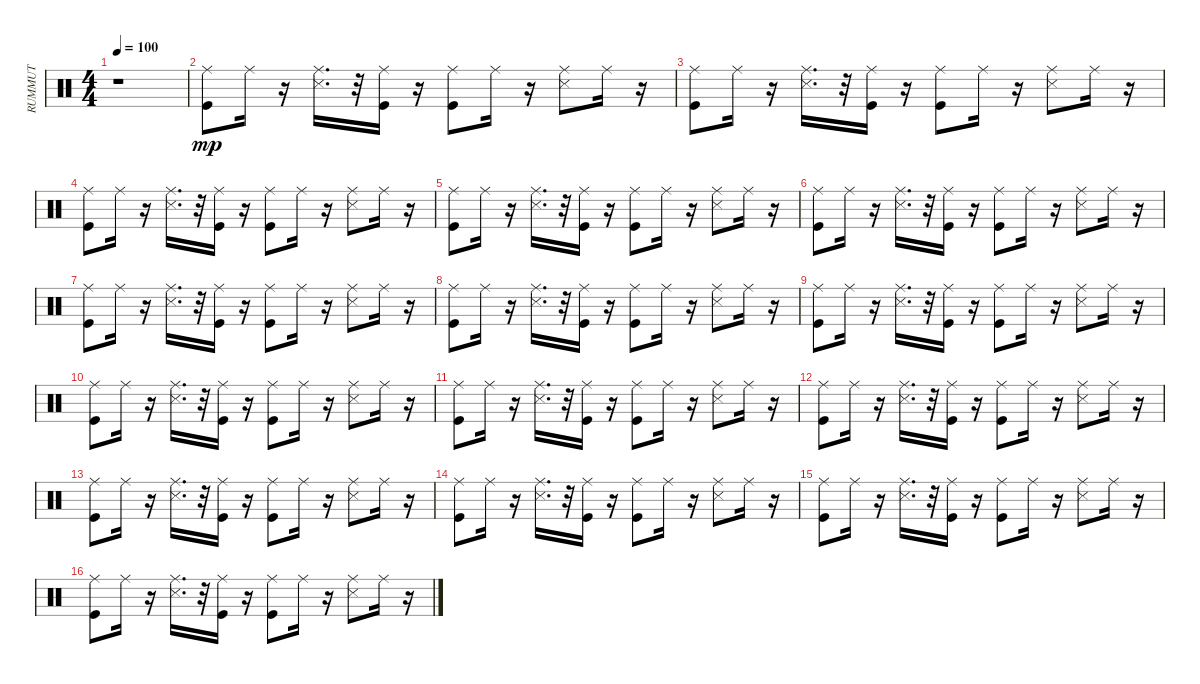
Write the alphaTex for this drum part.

\track ("RUMMUT" "RUMMUT") {instrument percussion}
\staff {score}
\articulation defaults
\ts (4 4)
\tempo 100
\clef neutral
\ks c
r.1{dy mp} |
("Kick (hit)" "Ride (middle)").8 "Ride (middle)".16 r.16 ("Snare (side stick) 3" "Ride (middle)").16{d} r.32 ("Ride (middle)" "Kick (hit)").16 r.16 ("Ride (middle)" "Kick (hit)").8 "Ride (middle)".16 r.16 ("Snare (side stick) 3" "Ride (middle)").8 "Ride (middle)".16 r.16 |
("Kick (hit)" "Ride (middle)").8 "Ride (middle)".16 r.16 ("Snare (side stick) 3" "Ride (middle)").16{d} r.32 ("Ride (middle)" "Kick (hit)").16 r.16 ("Ride (middle)" "Kick (hit)").8 "Ride (middle)".16 r.16 ("Snare (side stick) 3" "Ride (middle)").8 "Ride (middle)".16 r.16 |
("Kick (hit)" "Ride (middle)").8 "Ride (middle)".16 r.16 ("Snare (side stick) 3" "Ride (middle)").16{d} r.32 ("Ride (middle)" "Kick (hit)").16 r.16 ("Ride (middle)" "Kick (hit)").8 "Ride (middle)".16 r.16 ("Snare (side stick) 3" "Ride (middle)").8 "Ride (middle)".16 r.16 |
("Kick (hit)" "Ride (middle)").8 "Ride (middle)".16 r.16 ("Snare (side stick) 3" "Ride (middle)").16{d} r.32 ("Ride (middle)" "Kick (hit)").16 r.16 ("Ride (middle)" "Kick (hit)").8 "Ride (middle)".16 r.16 ("Snare (side stick) 3" "Ride (middle)").8 "Ride (middle)".16 r.16 |
("Kick (hit)" "Ride (middle)").8 "Ride (middle)".16 r.16 ("Snare (side stick) 3" "Ride (middle)").16{d} r.32 ("Ride (middle)" "Kick (hit)").16 r.16 ("Ride (middle)" "Kick (hit)").8 "Ride (middle)".16 r.16 ("Snare (side stick) 3" "Ride (middle)").8 "Ride (middle)".16 r.16 |
("Kick (hit)" "Ride (middle)").8 "Ride (middle)".16 r.16 ("Snare (side stick) 3" "Ride (middle)").16{d} r.32 ("Ride (middle)" "Kick (hit)").16 r.16 ("Ride (middle)" "Kick (hit)").8 "Ride (middle)".16 r.16 ("Snare (side stick) 3" "Ride (middle)").8 "Ride (middle)".16 r.16 |
("Kick (hit)" "Ride (middle)").8 "Ride (middle)".16 r.16 ("Snare (side stick) 3" "Ride (middle)").16{d} r.32 ("Ride (middle)" "Kick (hit)").16 r.16 ("Ride (middle)" "Kick (hit)").8 "Ride (middle)".16 r.16 ("Snare (side stick) 3" "Ride (middle)").8 "Ride (middle)".16 r.16 |
("Kick (hit)" "Ride (middle)").8 "Ride (middle)".16 r.16 ("Snare (side stick) 3" "Ride (middle)").16{d} r.32 ("Ride (middle)" "Kick (hit)").16 r.16 ("Ride (middle)" "Kick (hit)").8 "Ride (middle)".16 r.16 ("Snare (side stick) 3" "Ride (middle)").8 "Ride (middle)".16 r.16 |
("Kick (hit)" "Ride (middle)").8 "Ride (middle)".16 r.16 ("Snare (side stick) 3" "Ride (middle)").16{d} r.32 ("Ride (middle)" "Kick (hit)").16 r.16 ("Ride (middle)" "Kick (hit)").8 "Ride (middle)".16 r.16 ("Snare (side stick) 3" "Ride (middle)").8 "Ride (middle)".16 r.16 |
("Kick (hit)" "Ride (middle)").8 "Ride (middle)".16 r.16 ("Snare (side stick) 3" "Ride (middle)").16{d} r.32 ("Ride (middle)" "Kick (hit)").16 r.16 ("Ride (middle)" "Kick (hit)").8 "Ride (middle)".16 r.16 ("Snare (side stick) 3" "Ride (middle)").8 "Ride (middle)".16 r.16 |
("Kick (hit)" "Ride (middle)").8 "Ride (middle)".16 r.16 ("Snare (side stick) 3" "Ride (middle)").16{d} r.32 ("Ride (middle)" "Kick (hit)").16 r.16 ("Ride (middle)" "Kick (hit)").8 "Ride (middle)".16 r.16 ("Snare (side stick) 3" "Ride (middle)").8 "Ride (middle)".16 r.16 |
("Kick (hit)" "Ride (middle)").8 "Ride (middle)".16 r.16 ("Snare (side stick) 3" "Ride (middle)").16{d} r.32 ("Ride (middle)" "Kick (hit)").16 r.16 ("Ride (middle)" "Kick (hit)").8 "Ride (middle)".16 r.16 ("Snare (side stick) 3" "Ride (middle)").8 "Ride (middle)".16 r.16 |
("Kick (hit)" "Ride (middle)").8 "Ride (middle)".16 r.16 ("Snare (side stick) 3" "Ride (middle)").16{d} r.32 ("Ride (middle)" "Kick (hit)").16 r.16 ("Ride (middle)" "Kick (hit)").8 "Ride (middle)".16 r.16 ("Snare (side stick) 3" "Ride (middle)").8 "Ride (middle)".16 r.16 |
("Kick (hit)" "Ride (middle)").8 "Ride (middle)".16 r.16 ("Snare (side stick) 3" "Ride (middle)").16{d} r.32 ("Ride (middle)" "Kick (hit)").16 r.16 ("Ride (middle)" "Kick (hit)").8 "Ride (middle)".16 r.16 ("Snare (side stick) 3" "Ride (middle)").8 "Ride (middle)".16 r.16 |
("Kick (hit)" "Ride (middle)").8 "Ride (middle)".16 r.16 ("Snare (side stick) 3" "Ride (middle)").16{d} r.32 ("Ride (middle)" "Kick (hit)").16 r.16 ("Ride (middle)" "Kick (hit)").8 "Ride (middle)".16 r.16 ("Snare (side stick) 3" "Ride (middle)").8 "Ride (middle)".16 r.16
